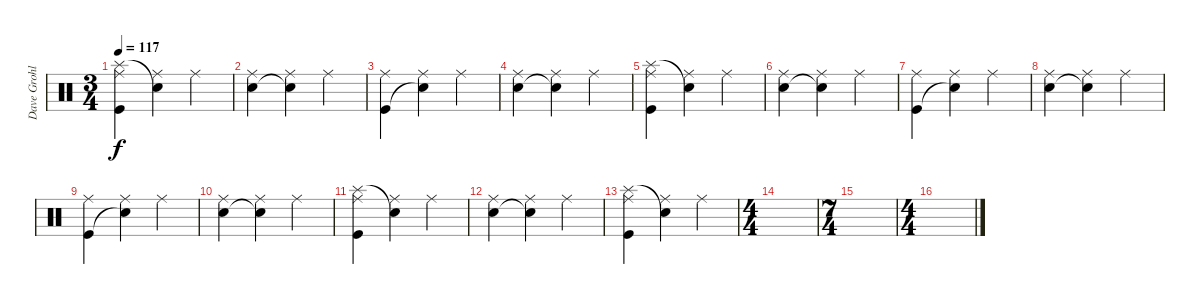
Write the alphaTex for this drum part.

\track ("Dave Grohl" "Dave Grohl") {instrument percussion}
\staff {score}
\articulation defaults
\ts (3 4)
\tempo 117
\clef neutral
\ks c
("Splash (hit)" "Kick (hit)" "Ride (middle)").4{dy f} ("Snare (hit)"{t} "Ride (middle)").4 "Ride (middle)".4 |
("Electric Snare (hit)" "Ride (middle)").4 ("Snare (hit)"{t} "Ride (middle)").4 "Ride (middle)".4 |
("Kick (hit)" "Ride (middle)").4 ("Snare (hit)"{t} "Ride (middle)").4 "Ride (middle)".4 |
("Electric Snare (hit)" "Ride (middle)").4 ("Snare (hit)"{t} "Ride (middle)").4 "Ride (middle)".4 |
("Splash (hit)" "Kick (hit)" "Ride (middle)").4 ("Snare (hit)"{t} "Ride (middle)").4 "Ride (middle)".4 |
("Electric Snare (hit)" "Ride (middle)").4 ("Snare (hit)"{t} "Ride (middle)").4 "Ride (middle)".4 |
("Kick (hit)" "Ride (middle)").4 ("Snare (hit)"{t} "Ride (middle)").4 "Ride (middle)".4 |
("Electric Snare (hit)" "Ride (middle)").4 ("Snare (hit)"{t} "Ride (middle)").4 "Ride (middle)".4 |
("Kick (hit)" "Ride (middle)").4 ("Snare (hit)"{t} "Ride (middle)").4 "Ride (middle)".4 |
("Electric Snare (hit)" "Ride (middle)").4 ("Snare (hit)"{t} "Ride (middle)").4 "Ride (middle)".4 |
("Splash (hit)" "Kick (hit)" "Ride (middle)").4 ("Snare (hit)"{t} "Ride (middle)").4 "Ride (middle)".4 |
("Electric Snare (hit)" "Ride (middle)").4 ("Snare (hit)"{t} "Ride (middle)").4 "Ride (middle)".4 |
("Splash (hit)" "Kick (hit)" "Ride (middle)").4 ("Snare (hit)"{t} "Ride (middle)").4 "Ride (middle)".4 |
\ts (4 4)
|
\ts (7 4)
|
\ts (4 4)
